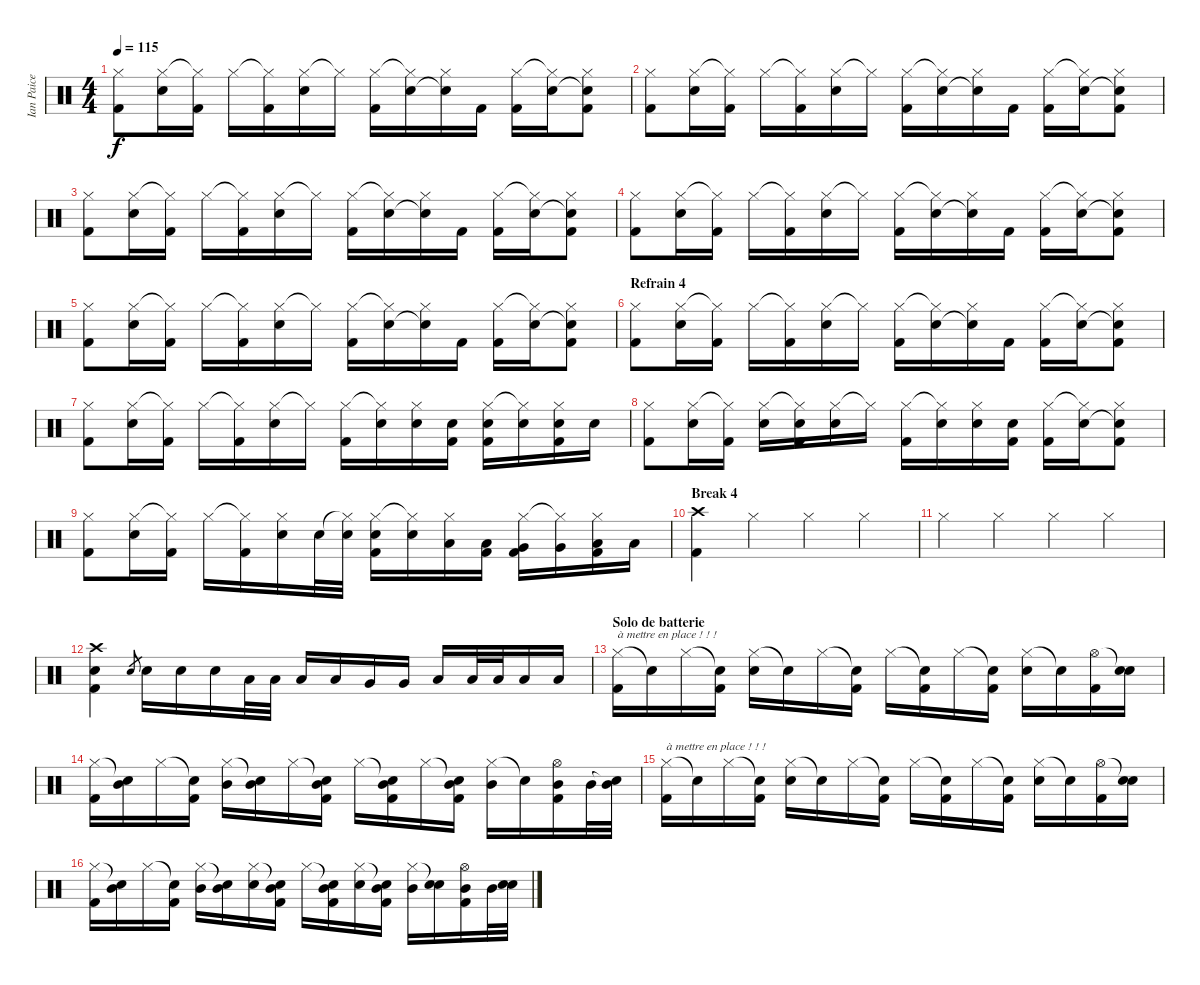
\track ("Ian Paice" "Ian Paice") {instrument percussion}
\staff {score}
\articulation defaults
\ts (4 4)
\tempo 115
\clef neutral
\ks c
("Hi-Hat (closed)" "Kick (hit) 2").8{dy f} ("Hi-Hat (closed)" "Snare (hit) 2").16 ("Hi-Hat (closed)"{t} "Kick (hit) 2").16 "Hi-Hat (closed)".16 ("Hi-Hat (closed)"{t} "Kick (hit) 2").16 ("Hi-Hat (closed)" "Snare (hit) 2").16 "Hi-Hat (closed)"{t}.16 ("Hi-Hat (closed)" "Kick (hit) 2").16 ("Hi-Hat (closed)"{t} "Snare (hit) 2").16 ("Hi-Hat (closed)" "Snare (hit) 2"{t}).16 "Kick (hit) 2".16 ("Hi-Hat (closed)" "Kick (hit) 2").16 ("Hi-Hat (closed)"{t} "Snare (hit) 2").16 ("Hi-Hat (closed)" "Snare (hit) 2"{t} "Kick (hit) 2").8 |
("Hi-Hat (closed)" "Kick (hit) 2").8 ("Hi-Hat (closed)" "Snare (hit) 2").16 ("Hi-Hat (closed)"{t} "Kick (hit) 2").16 "Hi-Hat (closed)".16 ("Hi-Hat (closed)"{t} "Kick (hit) 2").16 ("Hi-Hat (closed)" "Snare (hit) 2").16 "Hi-Hat (closed)"{t}.16 ("Hi-Hat (closed)" "Kick (hit) 2").16 ("Hi-Hat (closed)"{t} "Snare (hit) 2").16 ("Hi-Hat (closed)" "Snare (hit) 2"{t}).16 "Kick (hit) 2".16 ("Hi-Hat (closed)" "Kick (hit) 2").16 ("Hi-Hat (closed)"{t} "Snare (hit) 2").16 ("Hi-Hat (closed)" "Snare (hit) 2"{t} "Kick (hit) 2").8 |
("Hi-Hat (closed)" "Kick (hit) 2").8 ("Hi-Hat (closed)" "Snare (hit) 2").16 ("Hi-Hat (closed)"{t} "Kick (hit) 2").16 "Hi-Hat (closed)".16 ("Hi-Hat (closed)"{t} "Kick (hit) 2").16 ("Hi-Hat (closed)" "Snare (hit) 2").16 "Hi-Hat (closed)"{t}.16 ("Hi-Hat (closed)" "Kick (hit) 2").16 ("Hi-Hat (closed)"{t} "Snare (hit) 2").16 ("Hi-Hat (closed)" "Snare (hit) 2"{t}).16 "Kick (hit) 2".16 ("Hi-Hat (closed)" "Kick (hit) 2").16 ("Hi-Hat (closed)"{t} "Snare (hit) 2").16 ("Hi-Hat (closed)" "Snare (hit) 2"{t} "Kick (hit) 2").8 |
("Hi-Hat (closed)" "Kick (hit) 2").8 ("Hi-Hat (closed)" "Snare (hit) 2").16 ("Hi-Hat (closed)"{t} "Kick (hit) 2").16 "Hi-Hat (closed)".16 ("Hi-Hat (closed)"{t} "Kick (hit) 2").16 ("Hi-Hat (closed)" "Snare (hit) 2").16 "Hi-Hat (closed)"{t}.16 ("Hi-Hat (closed)" "Kick (hit) 2").16 ("Hi-Hat (closed)"{t} "Snare (hit) 2").16 ("Hi-Hat (closed)" "Snare (hit) 2"{t}).16 "Kick (hit) 2".16 ("Hi-Hat (closed)" "Kick (hit) 2").16 ("Hi-Hat (closed)"{t} "Snare (hit) 2").16 ("Hi-Hat (closed)" "Snare (hit) 2"{t} "Kick (hit) 2").8 |
("Hi-Hat (closed)" "Kick (hit) 2").8 ("Hi-Hat (closed)" "Snare (hit) 2").16 ("Hi-Hat (closed)"{t} "Kick (hit) 2").16 "Hi-Hat (closed)".16 ("Hi-Hat (closed)"{t} "Kick (hit) 2").16 ("Hi-Hat (closed)" "Snare (hit) 2").16 "Hi-Hat (closed)"{t}.16 ("Hi-Hat (closed)" "Kick (hit) 2").16 ("Hi-Hat (closed)"{t} "Snare (hit) 2").16 ("Hi-Hat (closed)" "Snare (hit) 2"{t}).16 "Kick (hit) 2".16 ("Hi-Hat (closed)" "Kick (hit) 2").16 ("Hi-Hat (closed)"{t} "Snare (hit) 2").16 ("Hi-Hat (closed)" "Snare (hit) 2"{t} "Kick (hit) 2").8 |
\section ("" "Refrain 4")
("Hi-Hat (closed)" "Kick (hit) 2").8 ("Hi-Hat (closed)" "Snare (hit) 2").16 ("Hi-Hat (closed)"{t} "Kick (hit) 2").16 "Hi-Hat (closed)".16 ("Hi-Hat (closed)"{t} "Kick (hit) 2").16 ("Hi-Hat (closed)" "Snare (hit) 2").16 "Hi-Hat (closed)"{t}.16 ("Hi-Hat (closed)" "Kick (hit) 2").16 ("Hi-Hat (closed)"{t} "Snare (hit) 2").16 ("Hi-Hat (closed)" "Snare (hit) 2"{t}).16 "Kick (hit) 2".16 ("Hi-Hat (closed)" "Kick (hit) 2").16 ("Hi-Hat (closed)"{t} "Snare (hit) 2").16 ("Hi-Hat (closed)" "Snare (hit) 2"{t} "Kick (hit) 2").8 |
("Hi-Hat (closed)" "Kick (hit) 2").8 ("Hi-Hat (closed)" "Snare (hit) 2").16 ("Hi-Hat (closed)"{t} "Kick (hit) 2").16 "Hi-Hat (closed)".16 ("Hi-Hat (closed)"{t} "Kick (hit) 2").16 ("Hi-Hat (closed)" "Snare (hit) 2").16 "Hi-Hat (closed)"{t}.16 ("Hi-Hat (closed)" "Kick (hit) 2").16 ("Hi-Hat (closed)"{t} "Snare (hit) 2").16 ("Hi-Hat (closed)" "Snare (hit) 2").16 ("Snare (hit) 2" "Kick (hit) 2").16 ("Hi-Hat (closed)" "Snare (hit) 2" "Kick (hit) 2").16 ("Hi-Hat (closed)"{t} "Snare (hit) 2").16 ("Hi-Hat (closed)" "Snare (hit) 2" "Kick (hit) 2").16 "Snare (hit) 2".16 |
("Hi-Hat (closed)" "Kick (hit) 2").8 ("Hi-Hat (closed)" "Snare (hit) 2").16 ("Hi-Hat (closed)"{t} "Kick (hit) 2").16 ("Hi-Hat (closed)" "Snare (hit) 2").16 ("Hi-Hat (closed)"{t} "Snare (hit) 2" "Kick (hit) 2").16 ("Hi-Hat (closed)" "Snare (hit) 2").16 "Hi-Hat (closed)"{t}.16 ("Hi-Hat (closed)" "Kick (hit) 2").16 ("Hi-Hat (closed)"{t} "Snare (hit) 2").16 ("Hi-Hat (closed)" "Snare (hit) 2").16 ("Snare (hit) 2" "Kick (hit) 2").16 ("Hi-Hat (closed)" "Kick (hit) 2").16 ("Hi-Hat (closed)"{t} "Snare (hit) 2").16 ("Hi-Hat (closed)" "Snare (hit) 2"{t} "Kick (hit) 2").8 |
("Hi-Hat (closed)" "Kick (hit) 2").8 ("Hi-Hat (closed)" "Snare (hit) 2").16 ("Hi-Hat (closed)"{t} "Kick (hit) 2").16 "Hi-Hat (closed)".16 ("Hi-Hat (closed)"{t} "Kick (hit) 2").16 ("Hi-Hat (closed)" "Snare (hit) 2").16 "Snare (hit) 2".32 ("Hi-Hat (closed)"{t} "Snare (hit) 2").32 ("Hi-Hat (closed)" "Snare (hit) 2" "Kick (hit) 2").16 ("Hi-Hat (closed)"{t} "Snare (hit) 2").16 ("Hi-Hat (closed)" "Low Tom (hit)").16 ("Low Tom (hit)" "Kick (hit) 2").16 ("Hi-Hat (closed)" "Very Low Tom (hit)" "Kick (hit) 2").16 ("Hi-Hat (closed)"{t} "Very Low Tom (hit)").16 ("Hi-Hat (closed)" "Low Floor Tom (hit)" "Kick (hit) 2").16 "Low Floor Tom (hit)".16 |
\section ("" "Break 4")
("Crash high (hit)" "Kick (hit) 2").4 "Hi-Hat (closed)".4 "Hi-Hat (closed)".4 "Hi-Hat (closed)".4 |
"Hi-Hat (closed)".4 "Hi-Hat (closed)".4 "Hi-Hat (closed)".4 "Hi-Hat (closed)".4 |
("Crash high (hit)" "Snare (hit) 2" "Kick (hit) 2").4 "Snare (hit) 2".8{gr} "Snare (hit) 2".16 "Snare (hit) 2".16 "Snare (hit) 2".16 "Low Tom (hit)".32 "Low Tom (hit)".32 "Low Tom (hit)".16 "Low Tom (hit)".16 "Very Low Tom (hit)".16 "Very Low Tom (hit)".16 "Low Floor Tom (hit)".16 "Low Floor Tom (hit)".32 "Low Floor Tom (hit)".32 "Low Floor Tom (hit)".16 "Low Floor Tom (hit)".16 |
\section ("" "Solo de batterie")
("Hi-Hat (closed)" "Kick (hit) 2").16{txt "à mettre en place ! ! !"} "Snare (hit)"{t}.16 "Hi-Hat (closed)".16 ("Snare (hit)"{t} "Kick (hit) 2").16 ("Hi-Hat (closed)" "Snare (hit) 2").16 "Snare (hit)"{t}.16 "Hi-Hat (closed)".16 ("Snare (hit)"{t} "Kick (hit) 2").16 "Hi-Hat (closed)".16 ("Snare (hit)"{t} "Kick (hit) 2").16 "Hi-Hat (closed)".16 ("Snare (hit)"{t} "Kick (hit) 2").16 ("Hi-Hat (closed)" "Snare (hit) 2").16 "Snare (hit)"{t}.16 ("Hi-Hat (open)" "Kick (hit) 2").16 ("Snare (hit)"{t} "Snare (hit) 2").16 |
("Hi-Hat (closed)" "Kick (hit) 2").16 ("Snare (hit)"{t} "Mid Tom (hit)").16 "Hi-Hat (closed)".16 ("Snare (hit)"{t} "Kick (hit) 2").16 ("Hi-Hat (closed)" "Mid Tom (hit)").16 ("Snare (hit)"{t} "Mid Tom (hit)").16 "Hi-Hat (closed)".16 ("Snare (hit)"{t} "Mid Tom (hit)" "Kick (hit) 2").16 "Hi-Hat (closed)".16 ("Snare (hit)"{t} "Mid Tom (hit)" "Kick (hit) 2").16 "Hi-Hat (closed)".16 ("Snare (hit)"{t} "Mid Tom (hit)" "Kick (hit) 2").16 ("Hi-Hat (closed)" "Mid Tom (hit)").16 "Snare (hit)"{t}.16 ("Hi-Hat (open)" "Mid Tom (hit)" "Kick (hit) 2").16 "Mid Tom (hit)".32 ("Snare (hit)"{t} "Mid Tom (hit)").32 |
("Hi-Hat (closed)" "Kick (hit) 2").16{txt "à mettre en place ! ! !"} "Snare (hit)"{t}.16 "Hi-Hat (closed)".16 ("Snare (hit)"{t} "Kick (hit) 2").16 ("Hi-Hat (closed)" "Snare (hit) 2").16 "Snare (hit)"{t}.16 "Hi-Hat (closed)".16 ("Snare (hit)"{t} "Kick (hit) 2").16 "Hi-Hat (closed)".16 ("Snare (hit)"{t} "Kick (hit) 2").16 "Hi-Hat (closed)".16 ("Snare (hit)"{t} "Kick (hit) 2").16 ("Hi-Hat (closed)" "Snare (hit) 2").16 "Snare (hit)"{t}.16 ("Hi-Hat (open)" "Kick (hit) 2").16 ("Snare (hit)"{t} "Snare (hit) 2").16 |
("Hi-Hat (closed)" "Kick (hit) 2").16 ("Snare (hit)"{t} "Mid Tom (hit)").16 "Hi-Hat (closed)".16 ("Snare (hit)"{t} "Kick (hit) 2").16 ("Hi-Hat (closed)" "Mid Tom (hit)").16 ("Snare (hit)"{t} "Mid Tom (hit)").16 ("Hi-Hat (closed)" "Snare (hit) 2").16 ("Snare (hit)"{t} "Mid Tom (hit)" "Kick (hit) 2").16 "Hi-Hat (closed)".16 ("Snare (hit)"{t} "Mid Tom (hit)" "Kick (hit) 2").16 ("Hi-Hat (closed)" "Snare (hit) 2").16 ("Snare (hit)"{t} "Mid Tom (hit)" "Kick (hit) 2").16 ("Hi-Hat (closed)" "Mid Tom (hit)").16 ("Snare (hit)"{t} "Snare (hit) 2").16 ("Hi-Hat (open)" "Mid Tom (hit)" "Kick (hit) 2").16 "Mid Tom (hit)".32 ("Snare (hit)"{t} "Snare (hit) 2").32
